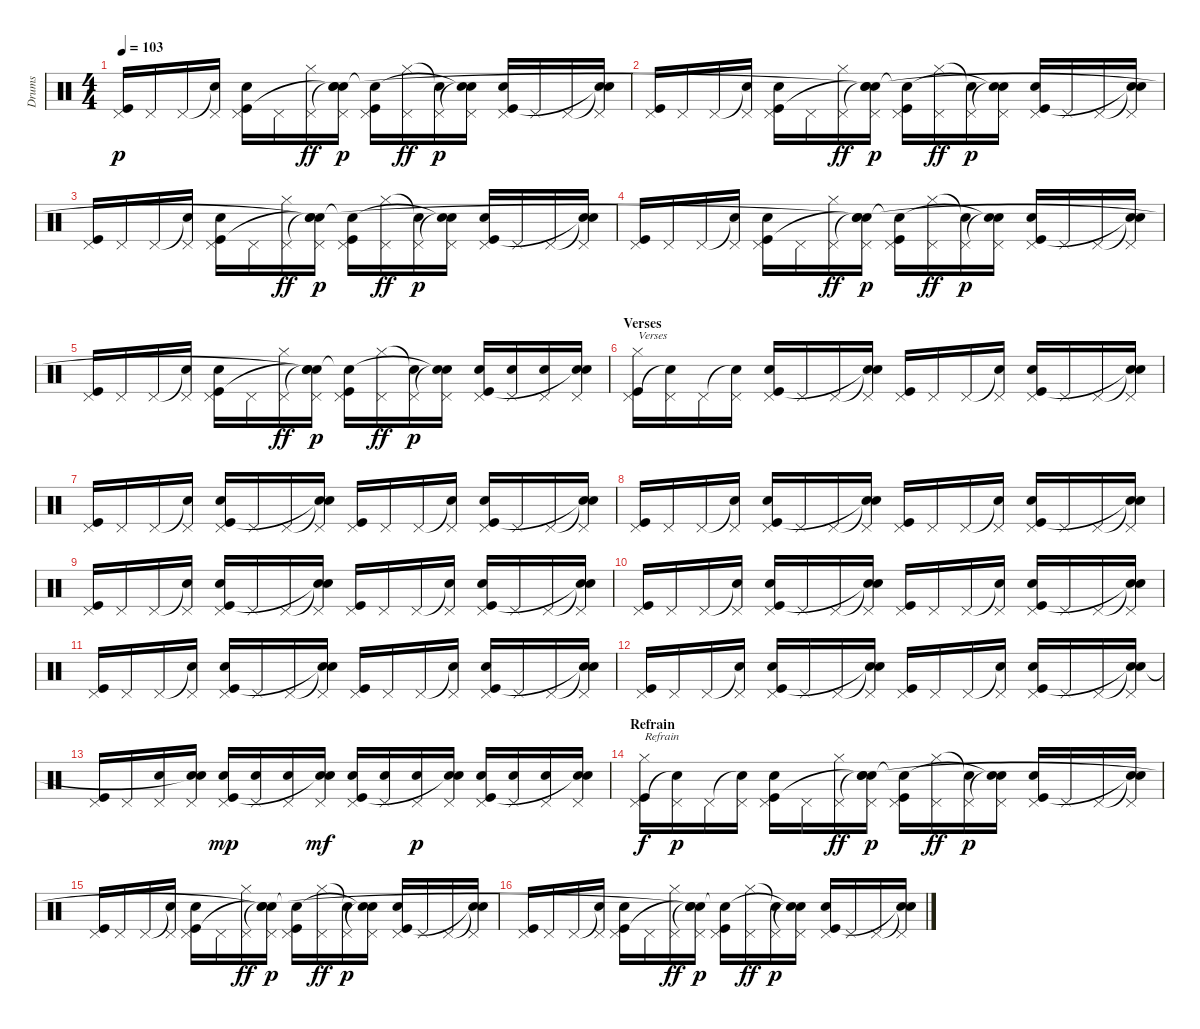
\track ("Drums" "Drums") {instrument percussion}
\staff {score}
\articulation defaults
\ts (4 4)
\tempo 103
\clef neutral
\ks c
("Kick (hit)" "Pedal Hi-Hat (hit)").16{dy p} "Pedal Hi-Hat (hit)".16 "Pedal Hi-Hat (hit)".16 ("Electric Snare (hit)"{t} "Pedal Hi-Hat (hit)").16 ("Electric Snare (hit)" "Pedal Hi-Hat (hit)" "Kick (hit)").16 "Pedal Hi-Hat (hit)".16 ("Pedal Hi-Hat (hit)" "Hi-Hat (closed)").16{dy ff} ("Snare (hit)"{t} "Pedal Hi-Hat (hit)" "Snare (hit)"{t} "Snare (hit)"{t}).16{dy p} ("Kick (hit)" "Pedal Hi-Hat (hit)" "Snare (hit)"{t}).16 ("Pedal Hi-Hat (hit)" "Hi-Hat (closed)").16{dy ff} ("Pedal Hi-Hat (hit)" "Snare (hit)"{t}).16{dy p} ("Snare (hit)"{t} "Pedal Hi-Hat (hit)" "Snare (hit)"{t}).16 ("Electric Snare (hit)" "Pedal Hi-Hat (hit)" "Kick (hit)").16 "Pedal Hi-Hat (hit)".16 "Pedal Hi-Hat (hit)".16 ("Snare (hit)"{t} "Pedal Hi-Hat (hit)" "Snare (hit)"{t}).16 |
("Kick (hit)" "Pedal Hi-Hat (hit)").16 "Pedal Hi-Hat (hit)".16 "Pedal Hi-Hat (hit)".16 ("Electric Snare (hit)"{t} "Pedal Hi-Hat (hit)").16 ("Electric Snare (hit)" "Pedal Hi-Hat (hit)" "Kick (hit)").16 "Pedal Hi-Hat (hit)".16 ("Pedal Hi-Hat (hit)" "Hi-Hat (closed)").16{dy ff} ("Snare (hit)"{t} "Pedal Hi-Hat (hit)" "Snare (hit)"{t} "Snare (hit)"{t}).16{dy p} ("Kick (hit)" "Pedal Hi-Hat (hit)" "Snare (hit)"{t}).16 ("Pedal Hi-Hat (hit)" "Hi-Hat (closed)").16{dy ff} ("Pedal Hi-Hat (hit)" "Snare (hit)"{t}).16{dy p} ("Snare (hit)"{t} "Pedal Hi-Hat (hit)" "Snare (hit)"{t}).16 ("Electric Snare (hit)" "Pedal Hi-Hat (hit)" "Kick (hit)").16 "Pedal Hi-Hat (hit)".16 "Pedal Hi-Hat (hit)".16 ("Snare (hit)"{t} "Pedal Hi-Hat (hit)" "Snare (hit)"{t}).16 |
("Kick (hit)" "Pedal Hi-Hat (hit)").16 "Pedal Hi-Hat (hit)".16 "Pedal Hi-Hat (hit)".16 ("Electric Snare (hit)"{t} "Pedal Hi-Hat (hit)").16 ("Electric Snare (hit)" "Pedal Hi-Hat (hit)" "Kick (hit)").16 "Pedal Hi-Hat (hit)".16 ("Pedal Hi-Hat (hit)" "Hi-Hat (closed)").16{dy ff} ("Snare (hit)"{t} "Pedal Hi-Hat (hit)" "Snare (hit)"{t} "Snare (hit)"{t}).16{dy p} ("Kick (hit)" "Pedal Hi-Hat (hit)" "Snare (hit)"{t}).16 ("Pedal Hi-Hat (hit)" "Hi-Hat (closed)").16{dy ff} ("Pedal Hi-Hat (hit)" "Snare (hit)"{t}).16{dy p} ("Snare (hit)"{t} "Pedal Hi-Hat (hit)" "Snare (hit)"{t}).16 ("Electric Snare (hit)" "Pedal Hi-Hat (hit)" "Kick (hit)").16 "Pedal Hi-Hat (hit)".16 "Pedal Hi-Hat (hit)".16 ("Snare (hit)"{t} "Pedal Hi-Hat (hit)" "Snare (hit)"{t}).16 |
("Kick (hit)" "Pedal Hi-Hat (hit)").16 "Pedal Hi-Hat (hit)".16 "Pedal Hi-Hat (hit)".16 ("Electric Snare (hit)"{t} "Pedal Hi-Hat (hit)").16 ("Electric Snare (hit)" "Pedal Hi-Hat (hit)" "Kick (hit)").16 "Pedal Hi-Hat (hit)".16 ("Pedal Hi-Hat (hit)" "Hi-Hat (closed)").16{dy ff} ("Snare (hit)"{t} "Pedal Hi-Hat (hit)" "Snare (hit)"{t} "Snare (hit)"{t}).16{dy p} ("Kick (hit)" "Pedal Hi-Hat (hit)" "Snare (hit)"{t}).16 ("Pedal Hi-Hat (hit)" "Hi-Hat (closed)").16{dy ff} ("Pedal Hi-Hat (hit)" "Snare (hit)"{t}).16{dy p} ("Snare (hit)"{t} "Pedal Hi-Hat (hit)" "Snare (hit)"{t}).16 ("Electric Snare (hit)" "Pedal Hi-Hat (hit)" "Kick (hit)").16 "Pedal Hi-Hat (hit)".16 "Pedal Hi-Hat (hit)".16 ("Snare (hit)"{t} "Pedal Hi-Hat (hit)" "Snare (hit)"{t}).16 |
("Kick (hit)" "Pedal Hi-Hat (hit)").16 "Pedal Hi-Hat (hit)".16 "Pedal Hi-Hat (hit)".16 ("Electric Snare (hit)"{t} "Pedal Hi-Hat (hit)").16 ("Electric Snare (hit)" "Pedal Hi-Hat (hit)" "Kick (hit)").16 "Pedal Hi-Hat (hit)".16 ("Pedal Hi-Hat (hit)" "Hi-Hat (closed)").16{dy ff} ("Snare (hit)"{t} "Pedal Hi-Hat (hit)" "Snare (hit)"{t} "Snare (hit)"{t}).16{dy p} ("Kick (hit)" "Pedal Hi-Hat (hit)" "Snare (hit)"{t}).16 ("Pedal Hi-Hat (hit)" "Hi-Hat (closed)").16{dy ff} ("Pedal Hi-Hat (hit)" "Snare (hit)"{t}).16{dy p} ("Snare (hit)"{t} "Pedal Hi-Hat (hit)" "Snare (hit)"{t}).16 ("Electric Snare (hit)" "Pedal Hi-Hat (hit)" "Kick (hit)").16 ("Electric Snare (hit)" "Pedal Hi-Hat (hit)").16 ("Electric Snare (hit)" "Pedal Hi-Hat (hit)").16 ("Electric Snare (hit)" "Pedal Hi-Hat (hit)" "Snare (hit)"{t}).16 |
\section ("" "Verses")
("Kick (hit)" "Pedal Hi-Hat (hit)" "Hi-Hat (closed)").16{txt "Verses"} ("Pedal Hi-Hat (hit)" "Snare (hit)"{t}).16 "Pedal Hi-Hat (hit)".16 ("Electric Snare (hit)"{t} "Pedal Hi-Hat (hit)").16 ("Electric Snare (hit)" "Pedal Hi-Hat (hit)" "Kick (hit)").16 "Pedal Hi-Hat (hit)".16 "Pedal Hi-Hat (hit)".16 ("Snare (hit)"{t} "Pedal Hi-Hat (hit)" "Snare (hit)"{t}).16 ("Kick (hit)" "Pedal Hi-Hat (hit)").16 "Pedal Hi-Hat (hit)".16 "Pedal Hi-Hat (hit)".16 ("Snare (hit)"{t} "Pedal Hi-Hat (hit)").16 ("Electric Snare (hit)" "Pedal Hi-Hat (hit)" "Kick (hit)").16 "Pedal Hi-Hat (hit)".16 "Pedal Hi-Hat (hit)".16 ("Snare (hit)"{t} "Pedal Hi-Hat (hit)" "Snare (hit)"{t}).16 |
("Kick (hit)" "Pedal Hi-Hat (hit)").16 "Pedal Hi-Hat (hit)".16 "Pedal Hi-Hat (hit)".16 ("Electric Snare (hit)"{t} "Pedal Hi-Hat (hit)").16 ("Electric Snare (hit)" "Pedal Hi-Hat (hit)" "Kick (hit)").16 "Pedal Hi-Hat (hit)".16 "Pedal Hi-Hat (hit)".16 ("Snare (hit)"{t} "Pedal Hi-Hat (hit)" "Snare (hit)"{t}).16 ("Kick (hit)" "Pedal Hi-Hat (hit)").16 "Pedal Hi-Hat (hit)".16 "Pedal Hi-Hat (hit)".16 ("Snare (hit)"{t} "Pedal Hi-Hat (hit)").16 ("Electric Snare (hit)" "Pedal Hi-Hat (hit)" "Kick (hit)").16 "Pedal Hi-Hat (hit)".16 "Pedal Hi-Hat (hit)".16 ("Snare (hit)"{t} "Pedal Hi-Hat (hit)" "Snare (hit)"{t}).16 |
("Kick (hit)" "Pedal Hi-Hat (hit)").16 "Pedal Hi-Hat (hit)".16 "Pedal Hi-Hat (hit)".16 ("Electric Snare (hit)"{t} "Pedal Hi-Hat (hit)").16 ("Electric Snare (hit)" "Pedal Hi-Hat (hit)" "Kick (hit)").16 "Pedal Hi-Hat (hit)".16 "Pedal Hi-Hat (hit)".16 ("Snare (hit)"{t} "Pedal Hi-Hat (hit)" "Snare (hit)"{t}).16 ("Kick (hit)" "Pedal Hi-Hat (hit)").16 "Pedal Hi-Hat (hit)".16 "Pedal Hi-Hat (hit)".16 ("Snare (hit)"{t} "Pedal Hi-Hat (hit)").16 ("Electric Snare (hit)" "Pedal Hi-Hat (hit)" "Kick (hit)").16 "Pedal Hi-Hat (hit)".16 "Pedal Hi-Hat (hit)".16 ("Snare (hit)"{t} "Pedal Hi-Hat (hit)" "Snare (hit)"{t}).16 |
("Kick (hit)" "Pedal Hi-Hat (hit)").16 "Pedal Hi-Hat (hit)".16 "Pedal Hi-Hat (hit)".16 ("Electric Snare (hit)"{t} "Pedal Hi-Hat (hit)").16 ("Electric Snare (hit)" "Pedal Hi-Hat (hit)" "Kick (hit)").16 "Pedal Hi-Hat (hit)".16 "Pedal Hi-Hat (hit)".16 ("Snare (hit)"{t} "Pedal Hi-Hat (hit)" "Snare (hit)"{t}).16 ("Kick (hit)" "Pedal Hi-Hat (hit)").16 "Pedal Hi-Hat (hit)".16 "Pedal Hi-Hat (hit)".16 ("Snare (hit)"{t} "Pedal Hi-Hat (hit)").16 ("Electric Snare (hit)" "Pedal Hi-Hat (hit)" "Kick (hit)").16 "Pedal Hi-Hat (hit)".16 "Pedal Hi-Hat (hit)".16 ("Snare (hit)"{t} "Pedal Hi-Hat (hit)" "Snare (hit)"{t}).16 |
("Kick (hit)" "Pedal Hi-Hat (hit)").16 "Pedal Hi-Hat (hit)".16 "Pedal Hi-Hat (hit)".16 ("Electric Snare (hit)"{t} "Pedal Hi-Hat (hit)").16 ("Electric Snare (hit)" "Pedal Hi-Hat (hit)" "Kick (hit)").16 "Pedal Hi-Hat (hit)".16 "Pedal Hi-Hat (hit)".16 ("Snare (hit)"{t} "Pedal Hi-Hat (hit)" "Snare (hit)"{t}).16 ("Kick (hit)" "Pedal Hi-Hat (hit)").16 "Pedal Hi-Hat (hit)".16 "Pedal Hi-Hat (hit)".16 ("Snare (hit)"{t} "Pedal Hi-Hat (hit)").16 ("Electric Snare (hit)" "Pedal Hi-Hat (hit)" "Kick (hit)").16 "Pedal Hi-Hat (hit)".16 "Pedal Hi-Hat (hit)".16 ("Snare (hit)"{t} "Pedal Hi-Hat (hit)" "Snare (hit)"{t}).16 |
("Kick (hit)" "Pedal Hi-Hat (hit)").16 "Pedal Hi-Hat (hit)".16 "Pedal Hi-Hat (hit)".16 ("Electric Snare (hit)"{t} "Pedal Hi-Hat (hit)").16 ("Electric Snare (hit)" "Pedal Hi-Hat (hit)" "Kick (hit)").16 "Pedal Hi-Hat (hit)".16 "Pedal Hi-Hat (hit)".16 ("Snare (hit)"{t} "Pedal Hi-Hat (hit)" "Snare (hit)"{t}).16 ("Kick (hit)" "Pedal Hi-Hat (hit)").16 "Pedal Hi-Hat (hit)".16 "Pedal Hi-Hat (hit)".16 ("Snare (hit)"{t} "Pedal Hi-Hat (hit)").16 ("Electric Snare (hit)" "Pedal Hi-Hat (hit)" "Kick (hit)").16 "Pedal Hi-Hat (hit)".16 "Pedal Hi-Hat (hit)".16 ("Snare (hit)"{t} "Pedal Hi-Hat (hit)" "Snare (hit)"{t}).16 |
("Kick (hit)" "Pedal Hi-Hat (hit)").16 "Pedal Hi-Hat (hit)".16 "Pedal Hi-Hat (hit)".16 ("Electric Snare (hit)"{t} "Pedal Hi-Hat (hit)").16 ("Electric Snare (hit)" "Pedal Hi-Hat (hit)" "Kick (hit)").16 "Pedal Hi-Hat (hit)".16 "Pedal Hi-Hat (hit)".16 ("Snare (hit)"{t} "Pedal Hi-Hat (hit)" "Snare (hit)"{t}).16 ("Kick (hit)" "Pedal Hi-Hat (hit)").16 "Pedal Hi-Hat (hit)".16 "Pedal Hi-Hat (hit)".16 ("Snare (hit)"{t} "Pedal Hi-Hat (hit)").16 ("Electric Snare (hit)" "Pedal Hi-Hat (hit)" "Kick (hit)").16 "Pedal Hi-Hat (hit)".16 "Pedal Hi-Hat (hit)".16 ("Snare (hit)"{t} "Pedal Hi-Hat (hit)" "Snare (hit)"{t}).16 |
("Pedal Hi-Hat (hit)" "Kick (hit)").16 "Pedal Hi-Hat (hit)".16 ("Electric Snare (hit)" "Pedal Hi-Hat (hit)").16 ("Electric Snare (hit)" "Pedal Hi-Hat (hit)" "Snare (hit)"{t}).16 ("Electric Snare (hit)" "Pedal Hi-Hat (hit)" "Kick (hit)").16{dy mp} ("Electric Snare (hit)" "Pedal Hi-Hat (hit)").16 ("Electric Snare (hit)" "Pedal Hi-Hat (hit)").16 ("Electric Snare (hit)" "Pedal Hi-Hat (hit)" "Snare (hit)"{t}).16{dy mf} ("Electric Snare (hit)" "Pedal Hi-Hat (hit)" "Kick (hit)").16 ("Electric Snare (hit)" "Pedal Hi-Hat (hit)").16 ("Electric Snare (hit)" "Pedal Hi-Hat (hit)").16{dy p} ("Electric Snare (hit)" "Pedal Hi-Hat (hit)" "Snare (hit)"{t}).16 ("Electric Snare (hit)" "Pedal Hi-Hat (hit)" "Kick (hit)").16 ("Electric Snare (hit)" "Pedal Hi-Hat (hit)").16 ("Electric Snare (hit)" "Pedal Hi-Hat (hit)").16 ("Electric Snare (hit)" "Pedal Hi-Hat (hit)" "Snare (hit)"{t}).16 |
\section ("" "Refrain")
("Kick (hit)" "Pedal Hi-Hat (hit)" "Hi-Hat (closed)").16{txt "Refrain" dy f} ("Pedal Hi-Hat (hit)" "Snare (hit)"{t}).16{dy p} "Pedal Hi-Hat (hit)".16 ("Electric Snare (hit)"{t} "Pedal Hi-Hat (hit)").16 ("Electric Snare (hit)" "Pedal Hi-Hat (hit)" "Kick (hit)").16 "Pedal Hi-Hat (hit)".16 ("Pedal Hi-Hat (hit)" "Hi-Hat (closed)").16{dy ff} ("Snare (hit)"{t} "Pedal Hi-Hat (hit)" "Snare (hit)"{t} "Snare (hit)").16{dy p} ("Kick (hit)" "Pedal Hi-Hat (hit)" "Snare (hit)"{t}).16 ("Pedal Hi-Hat (hit)" "Hi-Hat (closed)").16{dy ff} ("Pedal Hi-Hat (hit)" "Snare (hit)"{t}).16{dy p} ("Snare (hit)"{t} "Pedal Hi-Hat (hit)" "Snare (hit)"{t}).16 ("Electric Snare (hit)" "Pedal Hi-Hat (hit)" "Kick (hit)").16 "Pedal Hi-Hat (hit)".16 "Pedal Hi-Hat (hit)".16 ("Snare (hit)"{t} "Pedal Hi-Hat (hit)" "Snare (hit)"{t}).16 |
("Kick (hit)" "Pedal Hi-Hat (hit)").16 "Pedal Hi-Hat (hit)".16 "Pedal Hi-Hat (hit)".16 ("Electric Snare (hit)"{t} "Pedal Hi-Hat (hit)").16 ("Electric Snare (hit)" "Pedal Hi-Hat (hit)" "Kick (hit)").16 "Pedal Hi-Hat (hit)".16 ("Pedal Hi-Hat (hit)" "Hi-Hat (closed)").16{dy ff} ("Snare (hit)"{t} "Pedal Hi-Hat (hit)" "Snare (hit)"{t} "Snare (hit)"{t}).16{dy p} ("Kick (hit)" "Pedal Hi-Hat (hit)" "Snare (hit)"{t}).16 ("Pedal Hi-Hat (hit)" "Hi-Hat (closed)").16{dy ff} ("Pedal Hi-Hat (hit)" "Snare (hit)"{t}).16{dy p} ("Snare (hit)"{t} "Pedal Hi-Hat (hit)" "Snare (hit)"{t}).16 ("Electric Snare (hit)" "Pedal Hi-Hat (hit)" "Kick (hit)").16 "Pedal Hi-Hat (hit)".16 "Pedal Hi-Hat (hit)".16 ("Snare (hit)"{t} "Pedal Hi-Hat (hit)" "Snare (hit)"{t}).16 |
("Kick (hit)" "Pedal Hi-Hat (hit)").16 "Pedal Hi-Hat (hit)".16 "Pedal Hi-Hat (hit)".16 ("Electric Snare (hit)"{t} "Pedal Hi-Hat (hit)").16 ("Electric Snare (hit)" "Pedal Hi-Hat (hit)" "Kick (hit)").16 "Pedal Hi-Hat (hit)".16 ("Pedal Hi-Hat (hit)" "Hi-Hat (closed)").16{dy ff} ("Snare (hit)"{t} "Pedal Hi-Hat (hit)" "Snare (hit)"{t} "Snare (hit)"{t}).16{dy p} ("Kick (hit)" "Pedal Hi-Hat (hit)" "Snare (hit)"{t}).16 ("Pedal Hi-Hat (hit)" "Hi-Hat (closed)").16{dy ff} ("Pedal Hi-Hat (hit)" "Snare (hit)"{t}).16{dy p} ("Snare (hit)"{t} "Pedal Hi-Hat (hit)" "Snare (hit)"{t}).16 ("Electric Snare (hit)" "Pedal Hi-Hat (hit)" "Kick (hit)").16 "Pedal Hi-Hat (hit)".16 "Pedal Hi-Hat (hit)".16 ("Snare (hit)"{t} "Pedal Hi-Hat (hit)" "Snare (hit)"{t}).16
